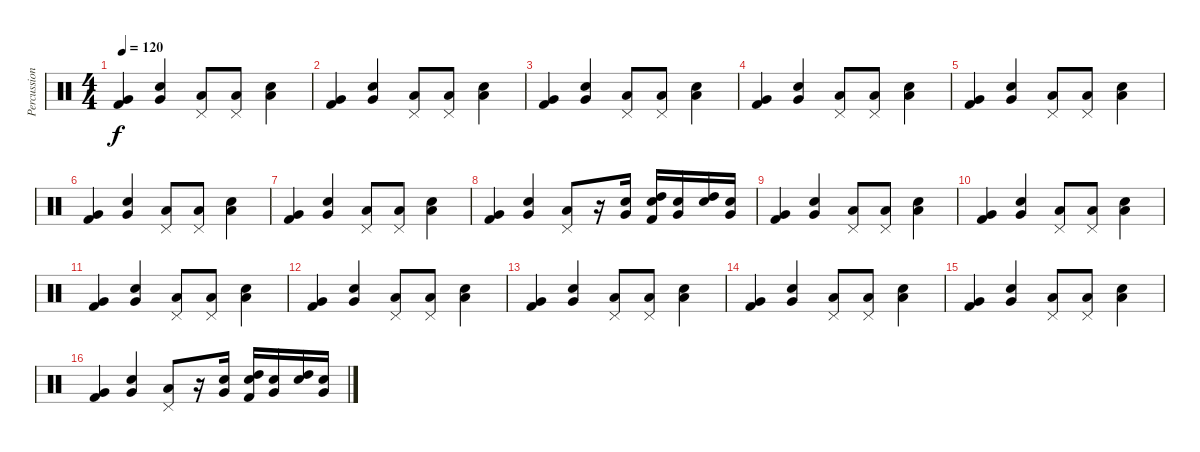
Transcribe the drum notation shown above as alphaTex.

\track ("Percussion" "Percussion") {instrument percussion}
\staff {score}
\articulation defaults
\ts (4 4)
\tempo 120
\clef neutral
\ks c
("Very Low Tom (hit)" "Kick (hit) 2").4{dy f} ("Very Low Tom (hit)" "Snare (hit) 2").4 ("Pedal Hi-Hat (hit)" "Low Tom (hit)").8 ("Pedal Hi-Hat (hit)" "Low Tom (hit)").8 ("Low Tom (hit)" "Snare (hit) 2").4 |
("Very Low Tom (hit)" "Kick (hit) 2").4 ("Very Low Tom (hit)" "Snare (hit) 2").4 ("Pedal Hi-Hat (hit)" "Low Tom (hit)").8 ("Pedal Hi-Hat (hit)" "Low Tom (hit)").8 ("Low Tom (hit)" "Snare (hit) 2").4 |
("Very Low Tom (hit)" "Kick (hit) 2").4 ("Very Low Tom (hit)" "Snare (hit) 2").4 ("Pedal Hi-Hat (hit)" "Low Tom (hit)").8 ("Pedal Hi-Hat (hit)" "Low Tom (hit)").8 ("Low Tom (hit)" "Snare (hit) 2").4 |
("Very Low Tom (hit)" "Kick (hit) 2").4 ("Very Low Tom (hit)" "Snare (hit) 2").4 ("Pedal Hi-Hat (hit)" "Low Tom (hit)").8 ("Pedal Hi-Hat (hit)" "Low Tom (hit)").8 ("Low Tom (hit)" "Snare (hit) 2").4 |
("Very Low Tom (hit)" "Kick (hit) 2").4 ("Very Low Tom (hit)" "Snare (hit) 2").4 ("Pedal Hi-Hat (hit)" "Low Tom (hit)").8 ("Pedal Hi-Hat (hit)" "Low Tom (hit)").8 ("Low Tom (hit)" "Snare (hit) 2").4 |
("Very Low Tom (hit)" "Kick (hit) 2").4 ("Very Low Tom (hit)" "Snare (hit) 2").4 ("Pedal Hi-Hat (hit)" "Low Tom (hit)").8 ("Pedal Hi-Hat (hit)" "Low Tom (hit)").8 ("Low Tom (hit)" "Snare (hit) 2").4 |
("Very Low Tom (hit)" "Kick (hit) 2").4 ("Very Low Tom (hit)" "Snare (hit) 2").4 ("Pedal Hi-Hat (hit)" "Low Tom (hit)").8 ("Pedal Hi-Hat (hit)" "Low Tom (hit)").8 ("Low Tom (hit)" "Snare (hit) 2").4 |
("Very Low Tom (hit)" "Kick (hit) 2").4 ("Very Low Tom (hit)" "Snare (hit) 2").4 ("Pedal Hi-Hat (hit)" "Low Tom (hit)").8 r.16 ("Very Low Tom (hit)" "Snare (hit) 2").16 ("High Tom (hit)" "Snare (hit) 2" "Kick (hit) 2").16 ("Very Low Tom (hit)" "Snare (hit) 2").16 ("High Tom (hit)" "Snare (hit) 2").16 ("Very Low Tom (hit)" "Snare (hit) 2").16 |
("Very Low Tom (hit)" "Kick (hit) 2").4 ("Very Low Tom (hit)" "Snare (hit) 2").4 ("Pedal Hi-Hat (hit)" "Low Tom (hit)").8 ("Pedal Hi-Hat (hit)" "Low Tom (hit)").8 ("Low Tom (hit)" "Snare (hit) 2").4 |
("Very Low Tom (hit)" "Kick (hit) 2").4 ("Very Low Tom (hit)" "Snare (hit) 2").4 ("Pedal Hi-Hat (hit)" "Low Tom (hit)").8 ("Pedal Hi-Hat (hit)" "Low Tom (hit)").8 ("Low Tom (hit)" "Snare (hit) 2").4 |
("Very Low Tom (hit)" "Kick (hit) 2").4 ("Very Low Tom (hit)" "Snare (hit) 2").4 ("Pedal Hi-Hat (hit)" "Low Tom (hit)").8 ("Pedal Hi-Hat (hit)" "Low Tom (hit)").8 ("Low Tom (hit)" "Snare (hit) 2").4 |
("Very Low Tom (hit)" "Kick (hit) 2").4 ("Very Low Tom (hit)" "Snare (hit) 2").4 ("Pedal Hi-Hat (hit)" "Low Tom (hit)").8 ("Pedal Hi-Hat (hit)" "Low Tom (hit)").8 ("Low Tom (hit)" "Snare (hit) 2").4 |
("Very Low Tom (hit)" "Kick (hit) 2").4 ("Very Low Tom (hit)" "Snare (hit) 2").4 ("Pedal Hi-Hat (hit)" "Low Tom (hit)").8 ("Pedal Hi-Hat (hit)" "Low Tom (hit)").8 ("Low Tom (hit)" "Snare (hit) 2").4 |
("Very Low Tom (hit)" "Kick (hit) 2").4 ("Very Low Tom (hit)" "Snare (hit) 2").4 ("Pedal Hi-Hat (hit)" "Low Tom (hit)").8 ("Pedal Hi-Hat (hit)" "Low Tom (hit)").8 ("Low Tom (hit)" "Snare (hit) 2").4 |
("Very Low Tom (hit)" "Kick (hit) 2").4 ("Very Low Tom (hit)" "Snare (hit) 2").4 ("Pedal Hi-Hat (hit)" "Low Tom (hit)").8 ("Pedal Hi-Hat (hit)" "Low Tom (hit)").8 ("Low Tom (hit)" "Snare (hit) 2").4 |
("Very Low Tom (hit)" "Kick (hit) 2").4 ("Very Low Tom (hit)" "Snare (hit) 2").4 ("Pedal Hi-Hat (hit)" "Low Tom (hit)").8 r.16 ("Very Low Tom (hit)" "Snare (hit) 2").16 ("High Tom (hit)" "Snare (hit) 2" "Kick (hit) 2").16 ("Very Low Tom (hit)" "Snare (hit) 2").16 ("High Tom (hit)" "Snare (hit) 2").16 ("Very Low Tom (hit)" "Snare (hit) 2").16
